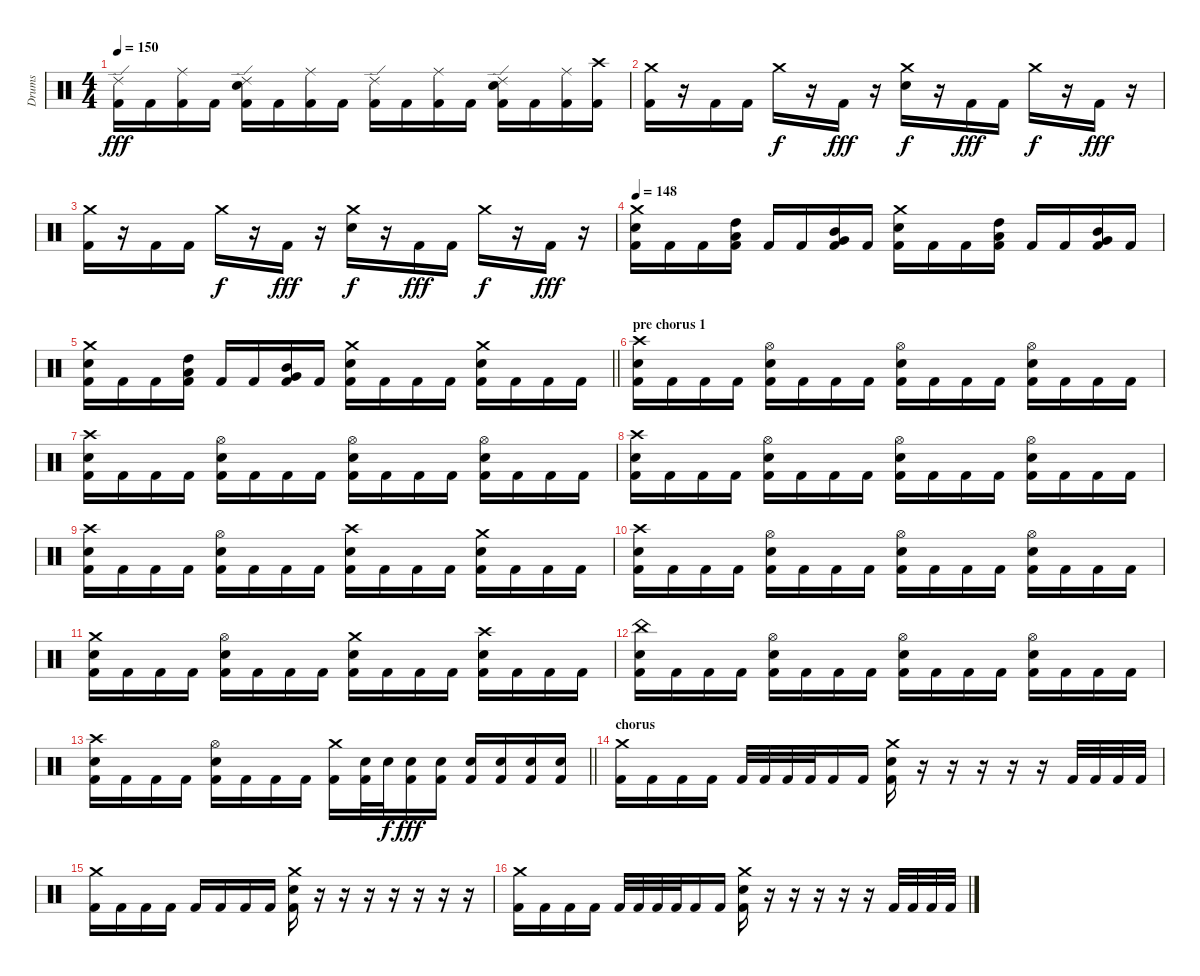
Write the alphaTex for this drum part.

\track ("Drums" "Drums") {instrument percussion}
\staff {score}
\articulation defaults
\ts (4 4)
\tempo 150
\clef neutral
\ks c
("Ride (edge) 2" "Kick (hit) 2").16{dy fff} "Kick (hit) 2".16 ("Ride (middle)" "Kick (hit) 2").16 "Kick (hit) 2".16 ("Ride (edge) 2" "Electric Snare (hit)" "Kick (hit) 2").16 "Kick (hit) 2".16 ("Ride (middle)" "Kick (hit) 2").16 "Kick (hit) 2".16 ("Ride (edge) 2" "Kick (hit) 2").16 "Kick (hit) 2".16 ("Ride (middle)" "Kick (hit) 2").16 "Kick (hit) 2".16 ("Ride (edge) 2" "Electric Snare (hit)" "Kick (hit) 2").16 "Kick (hit) 2".16 ("Ride (middle)" "Kick (hit) 2").16 ("Crash high (hit)" "Kick (hit) 2").16 |
("Crash medium (hit)" "Kick (hit) 2").16 r.16 "Kick (hit) 2".16 "Kick (hit) 2".16 "Crash medium (hit)".16{dy f} r.16 "Kick (hit) 2".16{dy fff} r.16 ("Crash medium (hit)" "Electric Snare (hit)").16{dy f} r.16 "Kick (hit) 2".16{dy fff} "Kick (hit) 2".16 "Crash medium (hit)".16{dy f} r.16 "Kick (hit) 2".16{dy fff} r.16 |
("Crash medium (hit)" "Kick (hit) 2").16 r.16 "Kick (hit) 2".16 "Kick (hit) 2".16 "Crash medium (hit)".16{dy f} r.16 "Kick (hit) 2".16{dy fff} r.16 ("Crash medium (hit)" "Electric Snare (hit)").16{dy f} r.16 "Kick (hit) 2".16{dy fff} "Kick (hit) 2".16 "Crash medium (hit)".16{dy f} r.16 "Kick (hit) 2".16{dy fff} r.16 |
\tempo 148
("Crash medium (hit)" "Electric Snare (hit)" "Kick (hit) 2").16 "Kick (hit) 2".16 "Kick (hit) 2".16 ("High Tom (hit)" "Low Tom (hit)" "Kick (hit) 2").16 "Kick (hit) 2".16 "Kick (hit) 2".16 ("Mid Tom (hit)" "Very Low Tom (hit)" "Kick (hit) 2").16 "Kick (hit) 2".16 ("Crash medium (hit)" "Electric Snare (hit)" "Kick (hit) 2").16 "Kick (hit) 2".16 "Kick (hit) 2".16 ("High Tom (hit)" "Low Tom (hit)" "Kick (hit) 2").16 "Kick (hit) 2".16 "Kick (hit) 2".16 ("Mid Tom (hit)" "Very Low Tom (hit)" "Kick (hit) 2").16 "Kick (hit) 2".16 |
\barLineRight lightlight
("Crash medium (hit)" "Electric Snare (hit)" "Kick (hit) 2").16 "Kick (hit) 2".16 "Kick (hit) 2".16 ("High Tom (hit)" "Low Tom (hit)" "Kick (hit) 2").16 "Kick (hit) 2".16 "Kick (hit) 2".16 ("Mid Tom (hit)" "Very Low Tom (hit)" "Kick (hit) 2").16 "Kick (hit) 2".16 ("Crash medium (hit)" "Electric Snare (hit)" "Kick (hit) 2").16 "Kick (hit) 2".16 "Kick (hit) 2".16 "Kick (hit) 2".16 ("Crash medium (hit)" "Electric Snare (hit)" "Kick (hit) 2").16 "Kick (hit) 2".16 "Kick (hit) 2".16 "Kick (hit) 2".16 |
\section ("" "pre chorus 1")
("Crash high (hit)" "Electric Snare (hit)" "Kick (hit) 2").16 "Kick (hit) 2".16 "Kick (hit) 2".16 "Kick (hit) 2".16 ("Hi-Hat (open)" "Electric Snare (hit)" "Kick (hit) 2").16 "Kick (hit) 2".16 "Kick (hit) 2".16 "Kick (hit) 2".16 ("Hi-Hat (open)" "Electric Snare (hit)" "Kick (hit) 2").16 "Kick (hit) 2".16 "Kick (hit) 2".16 "Kick (hit) 2".16 ("Hi-Hat (open)" "Electric Snare (hit)" "Kick (hit) 2").16 "Kick (hit) 2".16 "Kick (hit) 2".16 "Kick (hit) 2".16 |
("Crash high (hit)" "Electric Snare (hit)" "Kick (hit) 2").16 "Kick (hit) 2".16 "Kick (hit) 2".16 "Kick (hit) 2".16 ("Hi-Hat (open)" "Electric Snare (hit)" "Kick (hit) 2").16 "Kick (hit) 2".16 "Kick (hit) 2".16 "Kick (hit) 2".16 ("Hi-Hat (open)" "Electric Snare (hit)" "Kick (hit) 2").16 "Kick (hit) 2".16 "Kick (hit) 2".16 "Kick (hit) 2".16 ("Hi-Hat (open)" "Electric Snare (hit)" "Kick (hit) 2").16 "Kick (hit) 2".16 "Kick (hit) 2".16 "Kick (hit) 2".16 |
("Crash high (hit)" "Electric Snare (hit)" "Kick (hit) 2").16 "Kick (hit) 2".16 "Kick (hit) 2".16 "Kick (hit) 2".16 ("Hi-Hat (open)" "Electric Snare (hit)" "Kick (hit) 2").16 "Kick (hit) 2".16 "Kick (hit) 2".16 "Kick (hit) 2".16 ("Hi-Hat (open)" "Electric Snare (hit)" "Kick (hit) 2").16 "Kick (hit) 2".16 "Kick (hit) 2".16 "Kick (hit) 2".16 ("Hi-Hat (open)" "Electric Snare (hit)" "Kick (hit) 2").16 "Kick (hit) 2".16 "Kick (hit) 2".16 "Kick (hit) 2".16 |
("Crash high (hit)" "Electric Snare (hit)" "Kick (hit) 2").16 "Kick (hit) 2".16 "Kick (hit) 2".16 "Kick (hit) 2".16 ("Hi-Hat (open)" "Electric Snare (hit)" "Kick (hit) 2").16 "Kick (hit) 2".16 "Kick (hit) 2".16 "Kick (hit) 2".16 ("Crash high (hit)" "Electric Snare (hit)" "Kick (hit) 2").16 "Kick (hit) 2".16 "Kick (hit) 2".16 "Kick (hit) 2".16 ("Crash medium (hit)" "Electric Snare (hit)" "Kick (hit) 2").16 "Kick (hit) 2".16 "Kick (hit) 2".16 "Kick (hit) 2".16 |
("Crash high (hit)" "Electric Snare (hit)" "Kick (hit) 2").16 "Kick (hit) 2".16 "Kick (hit) 2".16 "Kick (hit) 2".16 ("Hi-Hat (open)" "Electric Snare (hit)" "Kick (hit) 2").16 "Kick (hit) 2".16 "Kick (hit) 2".16 "Kick (hit) 2".16 ("Hi-Hat (open)" "Electric Snare (hit)" "Kick (hit) 2").16 "Kick (hit) 2".16 "Kick (hit) 2".16 "Kick (hit) 2".16 ("Hi-Hat (open)" "Electric Snare (hit)" "Kick (hit) 2").16 "Kick (hit) 2".16 "Kick (hit) 2".16 "Kick (hit) 2".16 |
("Crash medium (hit)" "Electric Snare (hit)" "Kick (hit) 2").16 "Kick (hit) 2".16 "Kick (hit) 2".16 "Kick (hit) 2".16 ("Hi-Hat (open)" "Electric Snare (hit)" "Kick (hit) 2").16 "Kick (hit) 2".16 "Kick (hit) 2".16 "Kick (hit) 2".16 ("Crash medium (hit)" "Electric Snare (hit)" "Kick (hit) 2").16 "Kick (hit) 2".16 "Kick (hit) 2".16 "Kick (hit) 2".16 ("Crash high (hit)" "Electric Snare (hit)" "Kick (hit) 2").16 "Kick (hit) 2".16 "Kick (hit) 2".16 "Kick (hit) 2".16 |
("China (hit)" "Electric Snare (hit)" "Kick (hit) 2").16 "Kick (hit) 2".16 "Kick (hit) 2".16 "Kick (hit) 2".16 ("Hi-Hat (open)" "Electric Snare (hit)" "Kick (hit) 2").16 "Kick (hit) 2".16 "Kick (hit) 2".16 "Kick (hit) 2".16 ("Hi-Hat (open)" "Electric Snare (hit)" "Kick (hit) 2").16 "Kick (hit) 2".16 "Kick (hit) 2".16 "Kick (hit) 2".16 ("Hi-Hat (open)" "Electric Snare (hit)" "Kick (hit) 2").16 "Kick (hit) 2".16 "Kick (hit) 2".16 "Kick (hit) 2".16 |
\barLineRight lightlight
("Crash high (hit)" "Electric Snare (hit)" "Kick (hit) 2").16 "Kick (hit) 2".16 "Kick (hit) 2".16 "Kick (hit) 2".16 ("Hi-Hat (open)" "Electric Snare (hit)" "Kick (hit) 2").16 "Kick (hit) 2".16 "Kick (hit) 2".16 "Kick (hit) 2".16 ("Crash medium (hit)" "Kick (hit) 2").16 ("Electric Snare (hit)" "Kick (hit) 2").32 "Electric Snare (hit)".32{dy f} ("Electric Snare (hit)" "Kick (hit) 2").16{dy fff} ("Electric Snare (hit)" "Kick (hit) 2").16 ("Electric Snare (hit)" "Kick (hit) 2").16 ("Electric Snare (hit)" "Kick (hit) 2").16 ("Electric Snare (hit)" "Kick (hit) 2").16 ("Electric Snare (hit)" "Kick (hit) 2").16 |
\section ("" "chorus")
("Crash medium (hit)" "Kick (hit) 2").16 "Kick (hit) 2".16 "Kick (hit) 2".16 "Kick (hit) 2".16 "Kick (hit) 2".32 "Kick (hit) 2".32 "Kick (hit) 2".32 "Kick (hit) 2".32 "Kick (hit) 2".16 "Kick (hit) 2".16 ("Crash medium (hit)" "Electric Snare (hit)" "Kick (hit) 2").16 r.16 r.16 r.16 r.16 r.16 "Kick (hit) 2".32 "Kick (hit) 2".32 "Kick (hit) 2".32 "Kick (hit) 2".32 |
("Crash medium (hit)" "Kick (hit) 2").16 "Kick (hit) 2".16 "Kick (hit) 2".16 "Kick (hit) 2".16 "Kick (hit) 2".16 "Kick (hit) 2".16 "Kick (hit) 2".16 "Kick (hit) 2".16 ("Crash medium (hit)" "Electric Snare (hit)" "Kick (hit) 2").16 r.16 r.16 r.16 r.16 r.16 r.16 r.16 |
("Crash medium (hit)" "Kick (hit) 2").16 "Kick (hit) 2".16 "Kick (hit) 2".16 "Kick (hit) 2".16 "Kick (hit) 2".32 "Kick (hit) 2".32 "Kick (hit) 2".32 "Kick (hit) 2".32 "Kick (hit) 2".16 "Kick (hit) 2".16 ("Crash medium (hit)" "Electric Snare (hit)" "Kick (hit) 2").16 r.16 r.16 r.16 r.16 r.16 "Kick (hit) 2".32 "Kick (hit) 2".32 "Kick (hit) 2".32 "Kick (hit) 2".32
